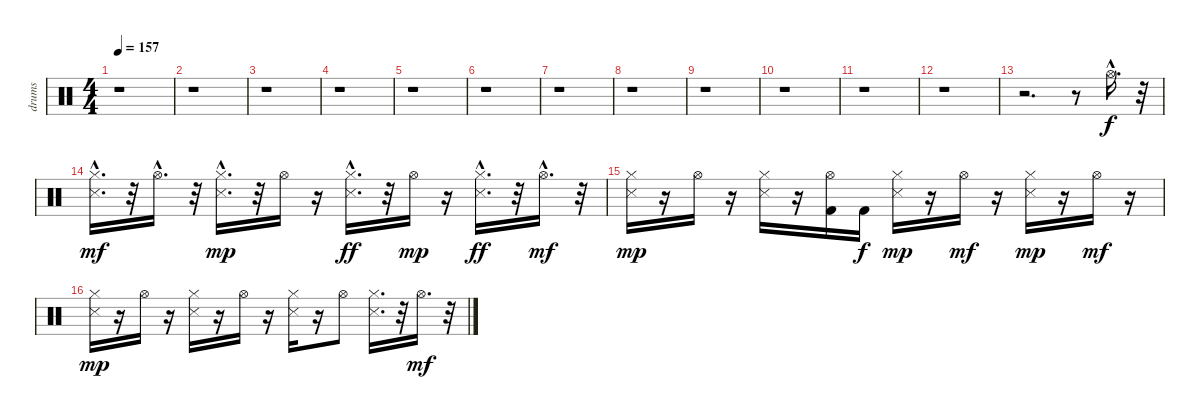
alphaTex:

\track ("drums   " "drums   ") {instrument percussion}
\staff {score}
\articulation defaults
\ts (4 4)
\tempo 157
\clef neutral
\ks c
r.1{dy f} |
r.1 |
r.1 |
r.1 |
r.1 |
r.1 |
r.1 |
r.1 |
r.1 |
r.1 |
r.1 |
r.1 |
r.2{d} r.8 "Hi-Hat (open)"{hac}.16{d} r.32 |
("Snare (side stick) 3"{hac} "Hi-Hat (closed)").16{d dy mf} r.32 "Hi-Hat (open)"{hac}.16{d} r.32 ("Snare (side stick) 3"{hac} "Hi-Hat (closed)").16{d dy mp} r.32 "Hi-Hat (open)".16 r.16 ("Snare (side stick) 3"{hac} "Hi-Hat (closed)").16{d dy ff} r.32 "Hi-Hat (open)".16{dy mp} r.16 ("Snare (side stick) 3"{hac} "Hi-Hat (closed)").16{d dy ff} r.32 "Hi-Hat (open)"{hac}.16{d dy mf} r.32 |
("Snare (side stick) 3" "Hi-Hat (closed)").16{dy mp} r.16 "Hi-Hat (open)".16 r.16 ("Snare (side stick) 3" "Hi-Hat (closed)").16 r.16 ("Kick (hit) 2" "Hi-Hat (open)").16 "Kick (hit) 2".16{dy f} ("Snare (side stick) 3" "Hi-Hat (closed)").16{dy mp} r.16 "Hi-Hat (open)".16{dy mf} r.16 ("Snare (side stick) 3" "Hi-Hat (closed)").16{dy mp} r.16 "Hi-Hat (open)".16{dy mf} r.16 |
("Snare (side stick) 3" "Hi-Hat (closed)").16{dy mp} r.16 "Hi-Hat (open)".16 r.16 ("Snare (side stick) 3" "Hi-Hat (closed)").16 r.16 "Hi-Hat (open)".16 r.16 ("Snare (side stick) 3" "Hi-Hat (closed)").16 r.16 "Hi-Hat (open)".8 ("Snare (side stick) 3" "Hi-Hat (closed)").16{d} r.32 "Hi-Hat (open)".16{d dy mf} r.32
